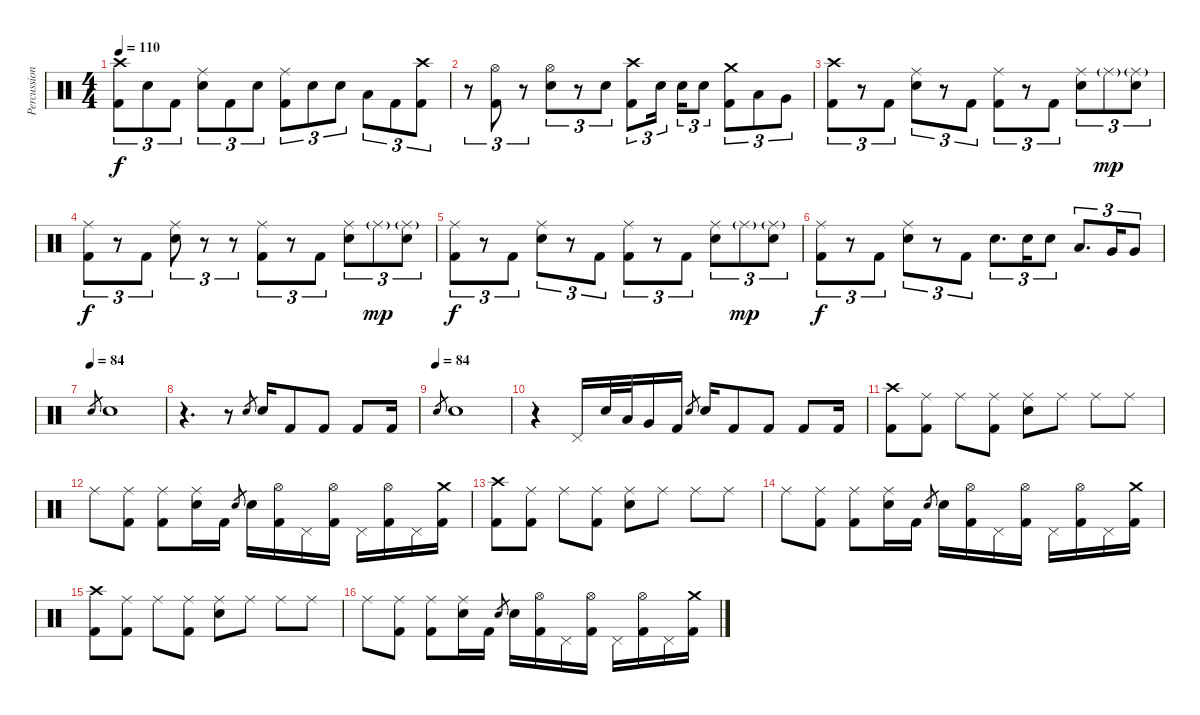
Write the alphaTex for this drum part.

\track ("Percussion" "Percussion") {instrument percussion}
\staff {score}
\articulation defaults
\ts (4 4)
\tempo 110
\clef neutral
\ks c
("Crash high (hit)" "Kick (hit) 2").8{tu (3 2) dy f} "Electric Snare (hit)".8{tu (3 2)} "Kick (hit) 2".8{tu (3 2)} ("Ride (middle)" "Electric Snare (hit)").8{tu (3 2)} "Kick (hit) 2".8{tu (3 2)} "Electric Snare (hit)".8{tu (3 2)} ("Ride (middle)" "Kick (hit) 2").8{tu (3 2)} "Electric Snare (hit)".8{tu (3 2)} "Electric Snare (hit)".8{tu (3 2)} "Low Tom (hit)".8{tu (3 2)} "Kick (hit) 2".8{tu (3 2)} ("Crash high (hit)" "Kick (hit) 2").8{tu (3 2)} |
r.8{tu (3 2)} ("Hi-Hat (open)" "Kick (hit) 2").8{tu (3 2)} r.8{tu (3 2)} ("Hi-Hat (open)" "Electric Snare (hit)").8{tu (3 2)} r.8{tu (3 2)} "Electric Snare (hit)".8{tu (3 2)} ("Crash high (hit)" "Kick (hit) 2").8{tu (3 2)} "Electric Snare (hit)".16{tu (3 2) beam splitsecondary} "Electric Snare (hit)".16{tu (3 2)} "Electric Snare (hit)".8{tu (3 2)} ("Crash medium (hit)" "Kick (hit) 2").8{tu (3 2)} "Low Tom (hit)".8{tu (3 2)} "Very Low Tom (hit)".8{tu (3 2)} |
("Crash high (hit)" "Kick (hit) 2").8{tu (3 2)} r.8{tu (3 2)} "Kick (hit) 2".8{tu (3 2)} ("Ride (middle)" "Electric Snare (hit)").8{tu (3 2)} r.8{tu (3 2)} "Kick (hit) 2".8{tu (3 2)} ("Ride (middle)" "Kick (hit) 2").8{tu (3 2)} r.8{tu (3 2)} "Kick (hit) 2".8{tu (3 2)} ("Ride (middle)" "Electric Snare (hit)").8{tu (3 2)} "Ride (middle)"{g}.8{tu (3 2) dy mp} ("Ride (middle)"{g} "Electric Snare (hit)").8{tu (3 2)} |
("Ride (middle)" "Kick (hit) 2").8{tu (3 2) dy f} r.8{tu (3 2)} "Kick (hit) 2".8{tu (3 2)} ("Ride (middle)" "Electric Snare (hit)").8{tu (3 2)} r.8{tu (3 2)} r.8{tu (3 2)} ("Ride (middle)" "Kick (hit) 2").8{tu (3 2)} r.8{tu (3 2)} "Kick (hit) 2".8{tu (3 2)} ("Ride (middle)" "Electric Snare (hit)").8{tu (3 2)} "Ride (middle)"{g}.8{tu (3 2) dy mp} ("Ride (middle)"{g} "Electric Snare (hit)").8{tu (3 2)} |
("Ride (middle)" "Kick (hit) 2").8{tu (3 2) dy f} r.8{tu (3 2)} "Kick (hit) 2".8{tu (3 2)} ("Ride (middle)" "Electric Snare (hit)").8{tu (3 2)} r.8{tu (3 2)} "Kick (hit) 2".8{tu (3 2)} ("Ride (middle)" "Kick (hit) 2").8{tu (3 2)} r.8{tu (3 2)} "Kick (hit) 2".8{tu (3 2)} ("Ride (middle)" "Electric Snare (hit)").8{tu (3 2)} "Ride (middle)"{g}.8{tu (3 2) dy mp} ("Ride (middle)"{g} "Electric Snare (hit)").8{tu (3 2)} |
("Ride (middle)" "Kick (hit) 2").8{tu (3 2) dy f} r.8{tu (3 2)} "Kick (hit) 2".8{tu (3 2)} ("Ride (middle)" "Electric Snare (hit)").8{tu (3 2)} r.8{tu (3 2)} "Kick (hit) 2".8{tu (3 2)} "Electric Snare (hit)".8{d tu (3 2)} "Electric Snare (hit)".16{tu (3 2)} "Electric Snare (hit)".8{tu (3 2)} "Low Tom (hit)".8{d tu (3 2)} "Very Low Tom (hit)".16{tu (3 2)} "Very Low Tom (hit)".8{tu (3 2)} |
\tempo (84)
"Electric Snare (hit)".8{gr} "Electric Snare (hit)".1 |
r.4{d} r.8 "Electric Snare (hit)".8{gr} "Electric Snare (hit)".16 "Kick (hit) 2".8 "Kick (hit) 2".8 "Kick (hit) 2".8 "Kick (hit) 2".16 |
\tempo (84)
"Electric Snare (hit)".8{gr} "Electric Snare (hit)".1 |
r.4 "Pedal Hi-Hat (hit)".16 "Electric Snare (hit)".32 "Low Tom (hit)".32 "Very Low Tom (hit)".16 "Kick (hit) 2".16 "Electric Snare (hit)".8{gr} "Electric Snare (hit)".16 "Kick (hit) 2".8 "Kick (hit) 2".8 "Kick (hit) 2".8 "Kick (hit) 2".16 |
("Crash high (hit)" "Kick (hit) 2").8 ("Ride (middle)" "Kick (hit) 2").8 "Ride (middle)".8 ("Ride (middle)" "Kick (hit) 2").8 ("Ride (middle)" "Electric Snare (hit)").8 "Ride (middle)".8 "Ride (middle)".8 "Ride (middle)".8 |
"Ride (middle)".8 ("Ride (middle)" "Kick (hit) 2").8 ("Ride (middle)" "Kick (hit) 2").8 ("Ride (middle)" "Electric Snare (hit)").16 "Kick (hit) 2".16 "Electric Snare (hit)".8{gr} "Electric Snare (hit)".16 ("Hi-Hat (open)" "Kick (hit) 2").16 "Pedal Hi-Hat (hit)".16 ("Hi-Hat (open)" "Kick (hit) 2").16 "Pedal Hi-Hat (hit)".16 ("Hi-Hat (open)" "Kick (hit) 2").16 "Pedal Hi-Hat (hit)".16 ("Crash medium (hit)" "Kick (hit) 2").16 |
("Crash high (hit)" "Kick (hit) 2").8 ("Ride (middle)" "Kick (hit) 2").8 "Ride (middle)".8 ("Ride (middle)" "Kick (hit) 2").8 ("Ride (middle)" "Electric Snare (hit)").8 "Ride (middle)".8 "Ride (middle)".8 "Ride (middle)".8 |
"Ride (middle)".8 ("Ride (middle)" "Kick (hit) 2").8 ("Ride (middle)" "Kick (hit) 2").8 ("Ride (middle)" "Electric Snare (hit)").16 "Kick (hit) 2".16 "Electric Snare (hit)".8{gr} "Electric Snare (hit)".16 ("Hi-Hat (open)" "Kick (hit) 2").16 "Pedal Hi-Hat (hit)".16 ("Hi-Hat (open)" "Kick (hit) 2").16 "Pedal Hi-Hat (hit)".16 ("Hi-Hat (open)" "Kick (hit) 2").16 "Pedal Hi-Hat (hit)".16 ("Crash medium (hit)" "Kick (hit) 2").16 |
("Crash high (hit)" "Kick (hit) 2").8 ("Ride (middle)" "Kick (hit) 2").8 "Ride (middle)".8 ("Ride (middle)" "Kick (hit) 2").8 ("Ride (middle)" "Electric Snare (hit)").8 "Ride (middle)".8 "Ride (middle)".8 "Ride (middle)".8 |
"Ride (middle)".8 ("Ride (middle)" "Kick (hit) 2").8 ("Ride (middle)" "Kick (hit) 2").8 ("Ride (middle)" "Electric Snare (hit)").16 "Kick (hit) 2".16 "Electric Snare (hit)".8{gr} "Electric Snare (hit)".16 ("Hi-Hat (open)" "Kick (hit) 2").16 "Pedal Hi-Hat (hit)".16 ("Hi-Hat (open)" "Kick (hit) 2").16 "Pedal Hi-Hat (hit)".16 ("Hi-Hat (open)" "Kick (hit) 2").16 "Pedal Hi-Hat (hit)".16 ("Crash medium (hit)" "Kick (hit) 2").16
